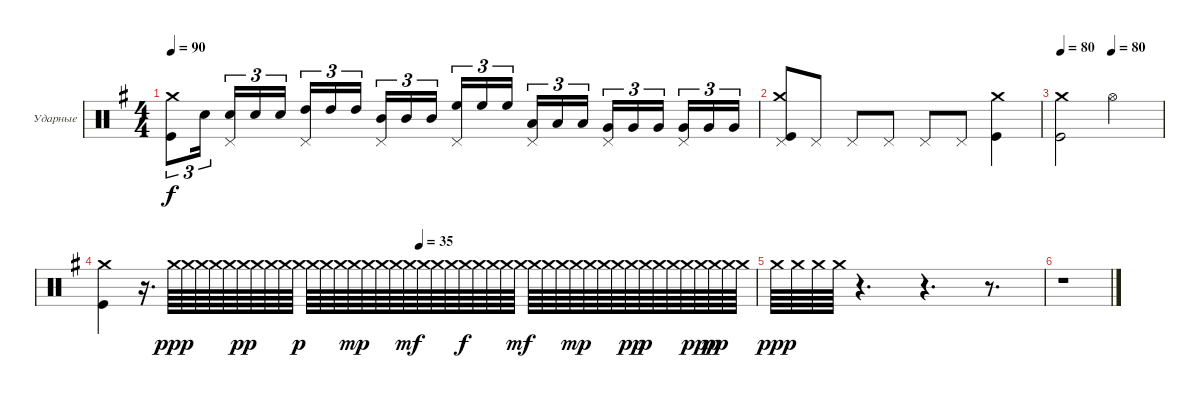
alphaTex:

\bracketExtendMode groupsimilarinstruments
\firstSystemTrackNameOrientation horizontal
\otherSystemsTrackNameOrientation horizontal
\track ("Александр Львов" "Ударные") {instrument percussion}
\staff {score}
\articulation defaults
\ts (4 4)
\tempo 90
\clef neutral
\ks eminor
("Kick (hit)" "Crash medium (hit)").8{tu (3 2) dy f} "Snare (hit) 2".16{tu (3 2)} ("Snare (hit) 2" "Pedal Hi-Hat (hit)").16{tu (3 2)} "Snare (hit) 2".16{tu (3 2)} "Snare (hit) 2".16{tu (3 2)} ("High Tom (hit)" "Pedal Hi-Hat (hit)").16{tu (3 2)} "High Tom (hit)".16{tu (3 2)} "High Tom (hit)".16{tu (3 2)} ("Mid Tom (hit)" "Pedal Hi-Hat (hit)").16{tu (3 2)} "Mid Tom (hit)".16{tu (3 2)} "Mid Tom (hit)".16{tu (3 2)} ("High Floor Tom (hit)" "Pedal Hi-Hat (hit)").16{tu (3 2)} "High Floor Tom (hit)".16{tu (3 2)} "High Floor Tom (hit)".16{tu (3 2)} ("Low Tom (hit)" "Pedal Hi-Hat (hit)").16{tu (3 2)} "Low Tom (hit)".16{tu (3 2)} "Low Tom (hit)".16{tu (3 2)} ("Very Low Tom (hit)" "Pedal Hi-Hat (hit)").16{tu (3 2)} "Very Low Tom (hit)".16{tu (3 2)} "Very Low Tom (hit)".16{tu (3 2)} ("Very Low Tom (hit)" "Pedal Hi-Hat (hit)").16{tu (3 2)} "Very Low Tom (hit)".16{tu (3 2)} "Very Low Tom (hit)".16{tu (3 2)} |
("Kick (hit)" "Crash medium (hit)" "Pedal Hi-Hat (hit)").8 "Pedal Hi-Hat (hit)".8 "Pedal Hi-Hat (hit)".8 "Pedal Hi-Hat (hit)".8 "Pedal Hi-Hat (hit)".8 "Pedal Hi-Hat (hit)".8 ("Crash medium (hit)" "Kick (hit)").4 |
\tempo 80
\tempo (80 0.5)
("Kick (hit)" "Crash medium (hit)").2 "Hi-Hat (open)".2 |
\tempo (35 0.484375)
("Kick (hit)" "Crash medium (hit)").4 r.16{d} "Crash medium (hit)".64{dy ppp} "Crash medium (hit)".64 "Crash medium (hit)".64 "Crash medium (hit)".64 "Crash medium (hit)".64 "Crash medium (hit)".64{dy pp} "Crash medium (hit)".64 "Crash medium (hit)".64 "Crash medium (hit)".64 "Crash medium (hit)".64{dy p} "Crash medium (hit)".64 "Crash medium (hit)".64 "Crash medium (hit)".64 "Crash medium (hit)".64{dy mp} "Crash medium (hit)".64 "Crash medium (hit)".64 "Crash medium (hit)".64 "Crash medium (hit)".64{dy mf} "Crash medium (hit)".64 "Crash medium (hit)".64 "Crash medium (hit)".64 "Crash medium (hit)".64{dy f} "Crash medium (hit)".64 "Crash medium (hit)".64 "Crash medium (hit)".64 "Crash medium (hit)".64{dy mf} "Crash medium (hit)".64 "Crash medium (hit)".64 "Crash medium (hit)".64 "Crash medium (hit)".64{dy mp} "Crash medium (hit)".64 "Crash medium (hit)".64 "Crash medium (hit)".64 "Crash medium (hit)".64{dy pp} "Crash medium (hit)".64{dy p} "Crash medium (hit)".64 "Crash medium (hit)".64 "Crash medium (hit)".64 "Crash medium (hit)".64{dy ppp} "Crash medium (hit)".64{dy pp} "Crash medium (hit)".64 "Crash medium (hit)".64 |
"Crash medium (hit)".64{dy ppp} "Crash medium (hit)".64 "Crash medium (hit)".64 "Crash medium (hit)".64 r.4{d} r.4{d} r.8{d} |
r.1
